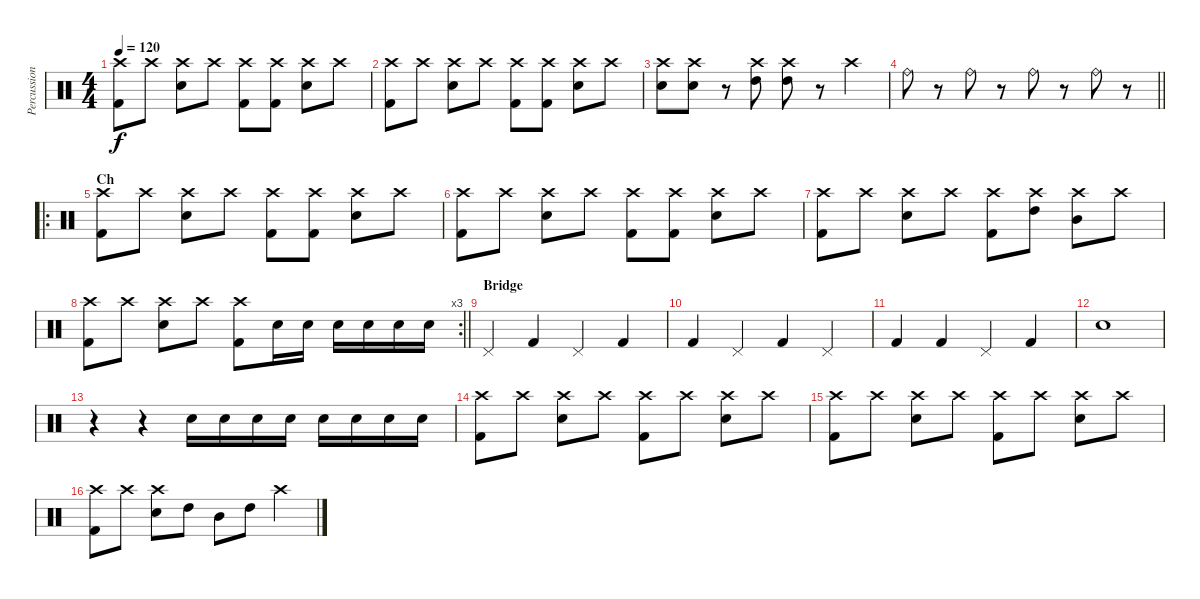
\track ("Percussion" "Percussion") {instrument percussion}
\staff {score}
\articulation defaults
\ts (4 4)
\tempo 120
\clef neutral
\ks c
("Crash high (hit)" "Kick (hit) 2").8{dy f} "Crash high (hit)".8 ("Crash high (hit)" "Snare (hit) 2").8 "Crash high (hit)".8 ("Crash high (hit)" "Kick (hit) 2").8 ("Crash high (hit)" "Kick (hit) 2").8 ("Crash high (hit)" "Snare (hit) 2").8 "Crash high (hit)".8 |
("Crash high (hit)" "Kick (hit) 2").8 "Crash high (hit)".8 ("Crash high (hit)" "Snare (hit) 2").8 "Crash high (hit)".8 ("Crash high (hit)" "Kick (hit) 2").8 ("Crash high (hit)" "Kick (hit) 2").8 ("Crash high (hit)" "Snare (hit) 2").8 "Crash high (hit)".8 |
("Crash high (hit)" "Snare (hit) 2").8 ("Crash high (hit)" "Snare (hit) 2").8 r.8 ("Crash high (hit)" "High Tom (hit)").8 ("Crash high (hit)" "High Tom (hit)").8 r.8 "Crash high (hit)".4 |
\barLineRight lightlight "Ride (bell)".8
r.8 "Ride (bell)".8 r.8 "Ride (bell)".8 r.8 "Ride (bell)".8 r.8 |
\ro
\section ("" "Ch")
("Crash high (hit)" "Kick (hit) 2").8 "Crash high (hit)".8 ("Crash high (hit)" "Snare (hit) 2").8 "Crash high (hit)".8 ("Crash high (hit)" "Kick (hit) 2").8 ("Crash high (hit)" "Kick (hit) 2").8 ("Crash high (hit)" "Snare (hit) 2").8 "Crash high (hit)".8 |
("Crash high (hit)" "Kick (hit) 2").8 "Crash high (hit)".8 ("Crash high (hit)" "Snare (hit) 2").8 "Crash high (hit)".8 ("Crash high (hit)" "Kick (hit) 2").8 ("Crash high (hit)" "Kick (hit) 2").8 ("Crash high (hit)" "Snare (hit) 2").8 "Crash high (hit)".8 |
("Crash high (hit)" "Kick (hit) 2").8 "Crash high (hit)".8 ("Crash high (hit)" "Snare (hit) 2").8 "Crash high (hit)".8 ("Crash high (hit)" "Kick (hit) 2").8 ("Crash high (hit)" "High Tom (hit)").8 ("Crash high (hit)" "Mid Tom (hit)").8 "Crash high (hit)".8 |
\rc 3
\barLineRight lightlight
("Crash high (hit)" "Kick (hit) 2").8 "Crash high (hit)".8 ("Crash high (hit)" "Snare (hit) 2").8 "Crash high (hit)".8 ("Crash high (hit)" "Kick (hit) 2").8 "Snare (hit) 2".16 "Snare (hit) 2".16 "Snare (hit) 2".16 "Snare (hit) 2".16 "Snare (hit) 2".16 "Snare (hit) 2".16 |
\section ("" "Bridge")
"Pedal Hi-Hat (hit)".4 "Kick (hit) 2".4 "Pedal Hi-Hat (hit)".4 "Kick (hit) 2".4 |
"Kick (hit) 2".4 "Pedal Hi-Hat (hit)".4 "Kick (hit) 2".4 "Pedal Hi-Hat (hit)".4 |
"Kick (hit) 2".4 "Kick (hit) 2".4 "Pedal Hi-Hat (hit)".4 "Kick (hit) 2".4 |
"Snare (hit) 2".1 |
r.4 r.4 "Snare (hit) 2".16 "Snare (hit) 2".16 "Snare (hit) 2".16 "Snare (hit) 2".16 "Snare (hit) 2".16 "Snare (hit) 2".16 "Snare (hit) 2".16 "Snare (hit) 2".16 |
("Crash high (hit)" "Kick (hit) 2").8 "Crash high (hit)".8 ("Crash high (hit)" "Snare (hit) 2").8 "Crash high (hit)".8 ("Crash high (hit)" "Kick (hit) 2").8 "Crash high (hit)".8 ("Crash high (hit)" "Snare (hit) 2").8 "Crash high (hit)".8 |
("Crash high (hit)" "Kick (hit) 2").8 "Crash high (hit)".8 ("Crash high (hit)" "Snare (hit) 2").8 "Crash high (hit)".8 ("Crash high (hit)" "Kick (hit) 2").8 "Crash high (hit)".8 ("Crash high (hit)" "Snare (hit) 2").8 "Crash high (hit)".8 |
("Crash high (hit)" "Kick (hit) 2").8 "Crash high (hit)".8 ("Crash high (hit)" "Snare (hit) 2").8 "High Tom (hit)".8 "Mid Tom (hit)".8 "High Tom (hit)".8 "Crash high (hit)".4
